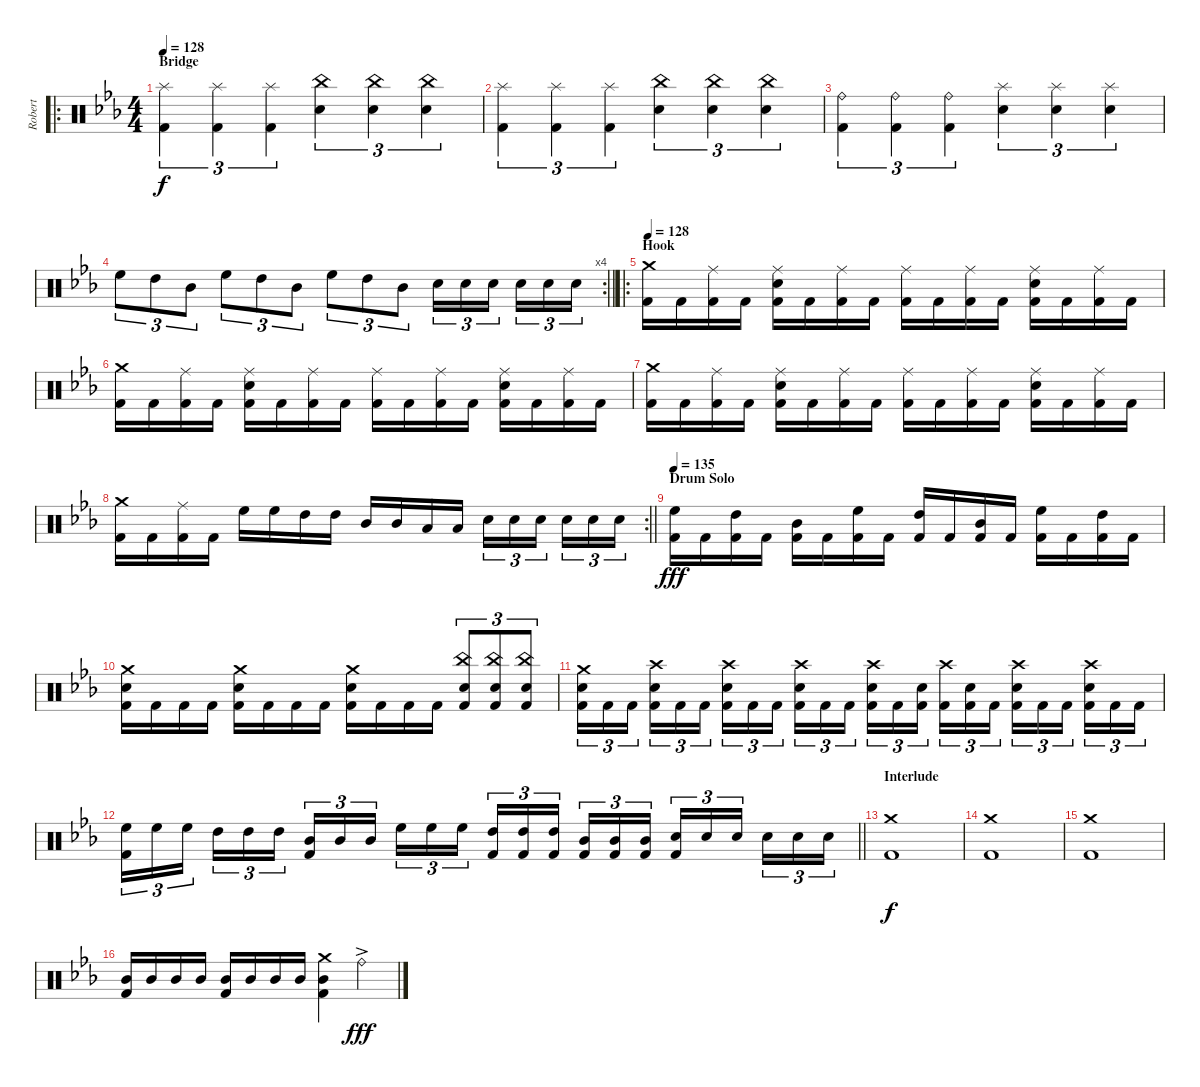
\track ("Robert" "Robert") {instrument percussion}
\staff {score}
\articulation defaults
\ro
\ts (4 4)
\section ("" "Bridge")
\tempo 128
\clef neutral
\ks cminor
("Splash (hit)" "Kick (hit) 2").4{tu (3 2) dy f} ("Splash (hit)" "Kick (hit) 2").4{tu (3 2)} ("Splash (hit)" "Kick (hit) 2").4{tu (3 2)} ("China (hit)" "Snare (hit) 2").4{tu (3 2)} ("China (hit)" "Snare (hit) 2").4{tu (3 2)} ("China (hit)" "Snare (hit) 2").4{tu (3 2)} |
("Splash (hit)" "Kick (hit) 2").4{tu (3 2)} ("Splash (hit)" "Kick (hit) 2").4{tu (3 2)} ("Splash (hit)" "Kick (hit) 2").4{tu (3 2)} ("China (hit)" "Snare (hit) 2").4{tu (3 2)} ("China (hit)" "Snare (hit) 2").4{tu (3 2)} ("China (hit)" "Snare (hit) 2").4{tu (3 2)} |
("Ride (bell)" "Kick (hit) 2").4{tu (3 2)} ("Ride (bell)" "Kick (hit) 2").4{tu (3 2)} ("Ride (bell)" "Kick (hit) 2").4{tu (3 2)} ("Splash (hit)" "Snare (hit) 2").4{tu (3 2)} ("Splash (hit)" "Snare (hit) 2").4{tu (3 2)} ("Splash (hit)" "Snare (hit) 2").4{tu (3 2)} |
\rc 4
\barLineRight lightlight "High Floor Tom (hit)".8{tu (3 2)} "High Tom (hit)".8{tu (3 2)} "Mid Tom (hit)".8{tu (3 2)} "High Floor Tom (hit)".8{tu (3 2)} "High Tom (hit)".8{tu (3 2)} "Mid Tom (hit)".8{tu (3 2)} "High Floor Tom (hit)".8{tu (3 2)} "High Tom (hit)".8{tu (3 2)} "Mid Tom (hit)".8{tu (3 2)} "Snare (hit) 2".16{tu (3 2)} "Snare (hit) 2".16{tu (3 2)} "Snare (hit) 2".16{tu (3 2) beam splitsecondary} "Snare (hit) 2".16{tu (3 2)} "Snare (hit) 2".16{tu (3 2)} "Snare (hit) 2".16{tu (3 2)}
|
\ro
\section ("" "Hook")
\tempo 128
("Crash medium (hit)" "Kick (hit) 2").16 "Kick (hit) 2".16 ("Ride (middle)" "Kick (hit) 2").16 "Kick (hit) 2".16 ("Ride (middle)" "Snare (hit) 2" "Kick (hit) 2").16 "Kick (hit) 2".16 ("Ride (middle)" "Kick (hit) 2").16 "Kick (hit) 2".16 ("Ride (middle)" "Kick (hit) 2").16 "Kick (hit) 2".16 ("Ride (middle)" "Kick (hit) 2").16 "Kick (hit) 2".16 ("Ride (middle)" "Snare (hit) 2" "Kick (hit) 2").16 "Kick (hit) 2".16 ("Ride (middle)" "Kick (hit) 2").16 "Kick (hit) 2".16 |
("Crash medium (hit)" "Kick (hit) 2").16 "Kick (hit) 2".16 ("Ride (middle)" "Kick (hit) 2").16 "Kick (hit) 2".16 ("Ride (middle)" "Snare (hit) 2" "Kick (hit) 2").16 "Kick (hit) 2".16 ("Ride (middle)" "Kick (hit) 2").16 "Kick (hit) 2".16 ("Ride (middle)" "Kick (hit) 2").16 "Kick (hit) 2".16 ("Ride (middle)" "Kick (hit) 2").16 "Kick (hit) 2".16 ("Ride (middle)" "Snare (hit) 2" "Kick (hit) 2").16 "Kick (hit) 2".16 ("Ride (middle)" "Kick (hit) 2").16 "Kick (hit) 2".16 |
("Crash medium (hit)" "Kick (hit) 2").16 "Kick (hit) 2".16 ("Ride (middle)" "Kick (hit) 2").16 "Kick (hit) 2".16 ("Ride (middle)" "Snare (hit) 2" "Kick (hit) 2").16 "Kick (hit) 2".16 ("Ride (middle)" "Kick (hit) 2").16 "Kick (hit) 2".16 ("Ride (middle)" "Kick (hit) 2").16 "Kick (hit) 2".16 ("Ride (middle)" "Kick (hit) 2").16 "Kick (hit) 2".16 ("Ride (middle)" "Snare (hit) 2" "Kick (hit) 2").16 "Kick (hit) 2".16 ("Ride (middle)" "Kick (hit) 2").16 "Kick (hit) 2".16 |
\rc 2
\barLineRight lightlight
("Crash medium (hit)" "Kick (hit) 2").16 "Kick (hit) 2".16 ("Ride (middle)" "Kick (hit) 2").16 "Kick (hit) 2".16 "High Floor Tom (hit)".16 "High Floor Tom (hit)".16 "High Tom (hit)".16 "High Tom (hit)".16 "Mid Tom (hit)".16 "Mid Tom (hit)".16 "Low Tom (hit)".16 "Low Tom (hit)".16 "Snare (hit) 2".16{tu (3 2)} "Snare (hit) 2".16{tu (3 2)} "Snare (hit) 2".16{tu (3 2) beam splitsecondary} "Snare (hit) 2".16{tu (3 2)} "Snare (hit) 2".16{tu (3 2)} "Snare (hit) 2".16{tu (3 2)} |
\section ("" "Drum Solo")
\tempo 135
("High Floor Tom (hit)" "Kick (hit) 2").16{dy fff} "Kick (hit) 2".16 ("High Tom (hit)" "Kick (hit) 2").16 "Kick (hit) 2".16 ("Mid Tom (hit)" "Kick (hit) 2").16 "Kick (hit) 2".16 ("High Floor Tom (hit)" "Kick (hit) 2").16 "Kick (hit) 2".16 ("High Tom (hit)" "Kick (hit) 2").16 "Kick (hit) 2".16 ("Mid Tom (hit)" "Kick (hit) 2").16 "Kick (hit) 2".16 ("High Floor Tom (hit)" "Kick (hit) 2").16 "Kick (hit) 2".16 ("High Tom (hit)" "Kick (hit) 2").16 "Kick (hit) 2".16 |
("Crash medium (hit)" "Snare (hit) 2" "Kick (hit) 2").16 "Kick (hit) 2".16 "Kick (hit) 2".16 "Kick (hit) 2".16 ("Crash medium (hit)" "Snare (hit) 2" "Kick (hit) 2").16 "Kick (hit) 2".16 "Kick (hit) 2".16 "Kick (hit) 2".16 ("Crash medium (hit)" "Snare (hit) 2" "Kick (hit) 2").16 "Kick (hit) 2".16 "Kick (hit) 2".16 "Kick (hit) 2".16 ("China (hit)" "Snare (hit) 2" "Kick (hit) 2").8{tu (3 2)} ("China (hit)" "Snare (hit) 2" "Kick (hit) 2").8{tu (3 2)} ("China (hit)" "Snare (hit) 2" "Kick (hit) 2").8{tu (3 2)} |
("Crash medium (hit)" "Snare (hit) 2" "Kick (hit) 2").16{tu (3 2)} "Kick (hit) 2".16{tu (3 2)} "Kick (hit) 2".16{tu (3 2) beam splitsecondary} ("Crash high (hit)" "Snare (hit) 2" "Kick (hit) 2").16{tu (3 2)} "Kick (hit) 2".16{tu (3 2)} "Kick (hit) 2".16{tu (3 2)} ("Crash high (hit)" "Snare (hit) 2" "Kick (hit) 2").16{tu (3 2)} "Kick (hit) 2".16{tu (3 2)} "Kick (hit) 2".16{tu (3 2) beam splitsecondary} ("Crash high (hit)" "Snare (hit) 2" "Kick (hit) 2").16{tu (3 2)} "Kick (hit) 2".16{tu (3 2)} "Kick (hit) 2".16{tu (3 2)} ("Crash high (hit)" "Snare (hit) 2" "Kick (hit) 2").16{tu (3 2)} "Kick (hit) 2".16{tu (3 2)} ("Snare (hit) 2" "Kick (hit) 2").16{tu (3 2) beam splitsecondary} ("Crash high (hit)" "Kick (hit) 2").16{tu (3 2)} ("Snare (hit) 2" "Kick (hit) 2").16{tu (3 2)} "Kick (hit) 2".16{tu (3 2)} ("Crash high (hit)" "Snare (hit) 2" "Kick (hit) 2").16{tu (3 2)} "Kick (hit) 2".16{tu (3 2)} "Kick (hit) 2".16{tu (3 2) beam splitsecondary} ("Crash high (hit)" "Snare (hit) 2" "Kick (hit) 2").16{tu (3 2)} "Kick (hit) 2".16{tu (3 2)} "Kick (hit) 2".16{tu (3 2)} |
\barLineRight lightlight
("High Floor Tom (hit)" "Kick (hit) 2").16{tu (3 2)} "High Floor Tom (hit)".16{tu (3 2)} "High Floor Tom (hit)".16{tu (3 2) beam splitsecondary} "High Tom (hit)".16{tu (3 2)} "High Tom (hit)".16{tu (3 2)} "High Tom (hit)".16{tu (3 2)} ("Mid Tom (hit)" "Kick (hit) 2").16{tu (3 2)} "Mid Tom (hit)".16{tu (3 2)} "Mid Tom (hit)".16{tu (3 2) beam splitsecondary} "High Floor Tom (hit)".16{tu (3 2)} "High Floor Tom (hit)".16{tu (3 2)} "High Floor Tom (hit)".16{tu (3 2)} ("High Tom (hit)" "Kick (hit) 2").16{tu (3 2)} ("High Tom (hit)" "Kick (hit) 2").16{tu (3 2)} ("High Tom (hit)" "Kick (hit) 2").16{tu (3 2) beam splitsecondary} ("Mid Tom (hit)" "Kick (hit) 2").16{tu (3 2)} ("Mid Tom (hit)" "Kick (hit) 2").16{tu (3 2)} ("Mid Tom (hit)" "Kick (hit) 2").16{tu (3 2)} ("Snare (hit) 2" "Kick (hit) 2").16{tu (3 2)} "Snare (hit) 2".16{tu (3 2)} "Snare (hit) 2".16{tu (3 2) beam splitsecondary} "Snare (hit) 2".16{tu (3 2)} "Snare (hit) 2".16{tu (3 2)} "Snare (hit) 2".16{tu (3 2)} |
\section ("" "Interlude")
("Crash medium (hit)" "Kick (hit) 2").1{dy f} |
("Crash medium (hit)" "Kick (hit) 2").1 |
("Crash medium (hit)" "Kick (hit) 2").1 |
("Mid Tom (hit)" "Kick (hit) 2").16 "Mid Tom (hit)".16 "Mid Tom (hit)".16 "Mid Tom (hit)".16 ("Mid Tom (hit)" "Kick (hit) 2").16 "Mid Tom (hit)".16 "Mid Tom (hit)".16 "Mid Tom (hit)".16 ("Crash medium (hit)" "Mid Tom (hit)" "Kick (hit) 2").4 "Ride (bell)"{ac}.4{dy fff}
